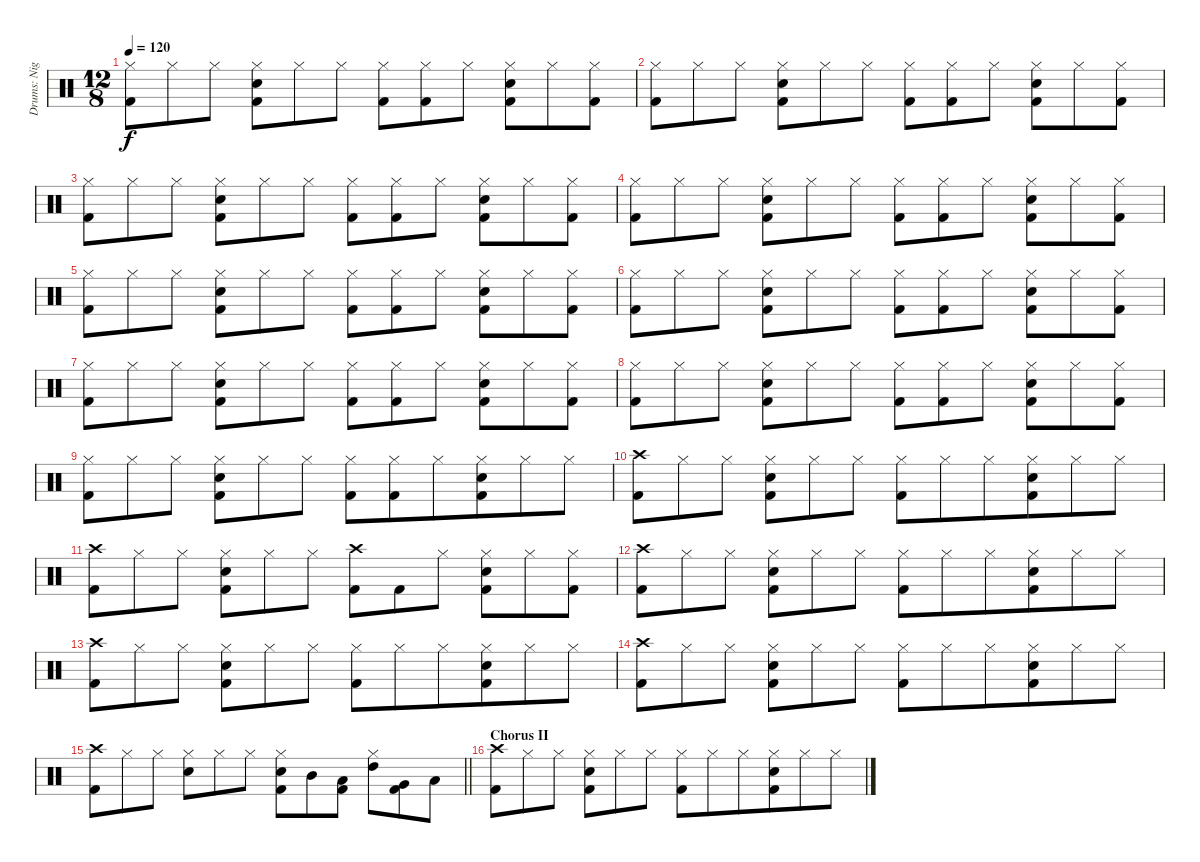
\track ("Drums: Nigel" "Drums: Nig") {instrument percussion}
\staff {score}
\articulation defaults
\ts (12 8)
\tempo 120
\clef neutral
\ks c
("Hi-Hat (closed)" "Kick (hit) 2").8{dy f} "Hi-Hat (closed)".8{beam merge} "Hi-Hat (closed)".8 ("Hi-Hat (closed)" "Snare (hit) 2" "Kick (hit) 2").8{beam merge} "Hi-Hat (closed)".8 "Hi-Hat (closed)".8 ("Hi-Hat (closed)" "Kick (hit) 2").8 ("Hi-Hat (closed)" "Kick (hit) 2").8{beam merge} "Hi-Hat (closed)".8 ("Hi-Hat (closed)" "Snare (hit) 2" "Kick (hit) 2").8{beam merge} "Hi-Hat (closed)".8 ("Hi-Hat (closed)" "Kick (hit) 2").8 |
("Hi-Hat (closed)" "Kick (hit) 2").8 "Hi-Hat (closed)".8{beam merge} "Hi-Hat (closed)".8 ("Hi-Hat (closed)" "Snare (hit) 2" "Kick (hit) 2").8{beam merge} "Hi-Hat (closed)".8 "Hi-Hat (closed)".8 ("Hi-Hat (closed)" "Kick (hit) 2").8 ("Hi-Hat (closed)" "Kick (hit) 2").8{beam merge} "Hi-Hat (closed)".8 ("Hi-Hat (closed)" "Snare (hit) 2" "Kick (hit) 2").8{beam merge} "Hi-Hat (closed)".8 ("Hi-Hat (closed)" "Kick (hit) 2").8 |
("Hi-Hat (closed)" "Kick (hit) 2").8 "Hi-Hat (closed)".8{beam merge} "Hi-Hat (closed)".8 ("Hi-Hat (closed)" "Snare (hit) 2" "Kick (hit) 2").8{beam merge} "Hi-Hat (closed)".8 "Hi-Hat (closed)".8 ("Hi-Hat (closed)" "Kick (hit) 2").8 ("Hi-Hat (closed)" "Kick (hit) 2").8{beam merge} "Hi-Hat (closed)".8 ("Hi-Hat (closed)" "Snare (hit) 2" "Kick (hit) 2").8{beam merge} "Hi-Hat (closed)".8 ("Hi-Hat (closed)" "Kick (hit) 2").8 |
("Hi-Hat (closed)" "Kick (hit) 2").8 "Hi-Hat (closed)".8{beam merge} "Hi-Hat (closed)".8 ("Hi-Hat (closed)" "Snare (hit) 2" "Kick (hit) 2").8{beam merge} "Hi-Hat (closed)".8 "Hi-Hat (closed)".8 ("Hi-Hat (closed)" "Kick (hit) 2").8 ("Hi-Hat (closed)" "Kick (hit) 2").8{beam merge} "Hi-Hat (closed)".8 ("Hi-Hat (closed)" "Snare (hit) 2" "Kick (hit) 2").8{beam merge} "Hi-Hat (closed)".8 ("Hi-Hat (closed)" "Kick (hit) 2").8 |
("Hi-Hat (closed)" "Kick (hit) 2").8 "Hi-Hat (closed)".8{beam merge} "Hi-Hat (closed)".8 ("Hi-Hat (closed)" "Snare (hit) 2" "Kick (hit) 2").8{beam merge} "Hi-Hat (closed)".8 "Hi-Hat (closed)".8 ("Hi-Hat (closed)" "Kick (hit) 2").8 ("Hi-Hat (closed)" "Kick (hit) 2").8{beam merge} "Hi-Hat (closed)".8 ("Hi-Hat (closed)" "Snare (hit) 2" "Kick (hit) 2").8{beam merge} "Hi-Hat (closed)".8 ("Hi-Hat (closed)" "Kick (hit) 2").8 |
("Hi-Hat (closed)" "Kick (hit) 2").8 "Hi-Hat (closed)".8{beam merge} "Hi-Hat (closed)".8 ("Hi-Hat (closed)" "Snare (hit) 2" "Kick (hit) 2").8{beam merge} "Hi-Hat (closed)".8 "Hi-Hat (closed)".8 ("Hi-Hat (closed)" "Kick (hit) 2").8 ("Hi-Hat (closed)" "Kick (hit) 2").8{beam merge} "Hi-Hat (closed)".8 ("Hi-Hat (closed)" "Snare (hit) 2" "Kick (hit) 2").8{beam merge} "Hi-Hat (closed)".8 ("Hi-Hat (closed)" "Kick (hit) 2").8 |
("Hi-Hat (closed)" "Kick (hit) 2").8 "Hi-Hat (closed)".8{beam merge} "Hi-Hat (closed)".8 ("Hi-Hat (closed)" "Snare (hit) 2" "Kick (hit) 2").8{beam merge} "Hi-Hat (closed)".8 "Hi-Hat (closed)".8 ("Hi-Hat (closed)" "Kick (hit) 2").8 ("Hi-Hat (closed)" "Kick (hit) 2").8{beam merge} "Hi-Hat (closed)".8 ("Hi-Hat (closed)" "Snare (hit) 2" "Kick (hit) 2").8{beam merge} "Hi-Hat (closed)".8 ("Hi-Hat (closed)" "Kick (hit) 2").8 |
("Hi-Hat (closed)" "Kick (hit) 2").8 "Hi-Hat (closed)".8{beam merge} "Hi-Hat (closed)".8 ("Hi-Hat (closed)" "Snare (hit) 2" "Kick (hit) 2").8{beam merge} "Hi-Hat (closed)".8 "Hi-Hat (closed)".8 ("Hi-Hat (closed)" "Kick (hit) 2").8 ("Hi-Hat (closed)" "Kick (hit) 2").8{beam merge} "Hi-Hat (closed)".8 ("Hi-Hat (closed)" "Snare (hit) 2" "Kick (hit) 2").8{beam merge} "Hi-Hat (closed)".8 ("Hi-Hat (closed)" "Kick (hit) 2").8 |
("Hi-Hat (closed)" "Kick (hit) 2").8 "Hi-Hat (closed)".8{beam merge} "Hi-Hat (closed)".8 ("Hi-Hat (closed)" "Snare (hit) 2" "Kick (hit) 2").8{beam merge} "Hi-Hat (closed)".8 "Hi-Hat (closed)".8 ("Hi-Hat (closed)" "Kick (hit) 2").8 ("Hi-Hat (closed)" "Kick (hit) 2").8{beam merge} "Hi-Hat (closed)".8{beam merge} ("Hi-Hat (closed)" "Snare (hit) 2" "Kick (hit) 2").8{beam merge} "Hi-Hat (closed)".8 "Hi-Hat (closed)".8 |
("Crash high (hit)" "Kick (hit) 2").8 "Hi-Hat (closed)".8{beam merge} "Hi-Hat (closed)".8 ("Hi-Hat (closed)" "Snare (hit) 2" "Kick (hit) 2").8{beam merge} "Hi-Hat (closed)".8 "Hi-Hat (closed)".8 ("Hi-Hat (closed)" "Kick (hit) 2").8 "Hi-Hat (closed)".8{beam merge} "Hi-Hat (closed)".8{beam merge} ("Hi-Hat (closed)" "Snare (hit) 2" "Kick (hit) 2").8{beam merge} "Hi-Hat (closed)".8 "Hi-Hat (closed)".8 |
("Crash high (hit)" "Kick (hit) 2").8 "Hi-Hat (closed)".8{beam merge} "Hi-Hat (closed)".8 ("Hi-Hat (closed)" "Snare (hit) 2" "Kick (hit) 2").8{beam merge} "Hi-Hat (closed)".8 "Hi-Hat (closed)".8 ("Crash high (hit)" "Kick (hit) 2").8 "Kick (hit) 2".8 "Hi-Hat (closed)".8 ("Hi-Hat (closed)" "Snare (hit) 2" "Kick (hit) 2").8 "Hi-Hat (closed)".8 ("Hi-Hat (closed)" "Kick (hit) 2").8 |
("Crash high (hit)" "Kick (hit) 2").8 "Hi-Hat (closed)".8{beam merge} "Hi-Hat (closed)".8 ("Hi-Hat (closed)" "Snare (hit) 2" "Kick (hit) 2").8{beam merge} "Hi-Hat (closed)".8 "Hi-Hat (closed)".8 ("Hi-Hat (closed)" "Kick (hit) 2").8 "Hi-Hat (closed)".8{beam merge} "Hi-Hat (closed)".8{beam merge} ("Hi-Hat (closed)" "Snare (hit) 2" "Kick (hit) 2").8{beam merge} "Hi-Hat (closed)".8 "Hi-Hat (closed)".8 |
("Crash high (hit)" "Kick (hit) 2").8 "Hi-Hat (closed)".8{beam merge} "Hi-Hat (closed)".8 ("Hi-Hat (closed)" "Snare (hit) 2" "Kick (hit) 2").8{beam merge} "Hi-Hat (closed)".8 "Hi-Hat (closed)".8 ("Hi-Hat (closed)" "Kick (hit) 2").8 "Hi-Hat (closed)".8{beam merge} "Hi-Hat (closed)".8{beam merge} ("Hi-Hat (closed)" "Snare (hit) 2" "Kick (hit) 2").8{beam merge} "Hi-Hat (closed)".8 "Hi-Hat (closed)".8 |
("Crash high (hit)" "Kick (hit) 2").8 "Hi-Hat (closed)".8{beam merge} "Hi-Hat (closed)".8 ("Hi-Hat (closed)" "Snare (hit) 2" "Kick (hit) 2").8{beam merge} "Hi-Hat (closed)".8 "Hi-Hat (closed)".8 ("Hi-Hat (closed)" "Kick (hit) 2").8 "Hi-Hat (closed)".8{beam merge} "Hi-Hat (closed)".8{beam merge} ("Hi-Hat (closed)" "Snare (hit) 2" "Kick (hit) 2").8{beam merge} "Hi-Hat (closed)".8 "Hi-Hat (closed)".8 |
\barLineRight lightlight
("Crash high (hit)" "Kick (hit) 2").8 "Hi-Hat (closed)".8 "Hi-Hat (closed)".8 ("Hi-Hat (closed)" "Snare (hit) 2").8 "Hi-Hat (closed)".8 "Hi-Hat (closed)".8 ("Hi-Hat (closed)" "Snare (hit) 2" "Kick (hit) 2").8 "Mid Tom (hit)".8 ("Low Tom (hit)" "Kick (hit) 2").8 ("Hi-Hat (closed)" "High Tom (hit)").8 ("Very Low Tom (hit)" "Kick (hit) 2").8 "Low Floor Tom (hit)".8 |
\section ("" "Chorus II")
("Crash high (hit)" "Kick (hit) 2").8 "Hi-Hat (closed)".8{beam merge} "Hi-Hat (closed)".8 ("Hi-Hat (closed)" "Snare (hit) 2" "Kick (hit) 2").8{beam merge} "Hi-Hat (closed)".8 "Hi-Hat (closed)".8 ("Hi-Hat (closed)" "Kick (hit) 2").8 "Hi-Hat (closed)".8{beam merge} "Hi-Hat (closed)".8{beam merge} ("Hi-Hat (closed)" "Snare (hit) 2" "Kick (hit) 2").8{beam merge} "Hi-Hat (closed)".8 "Hi-Hat (closed)".8
